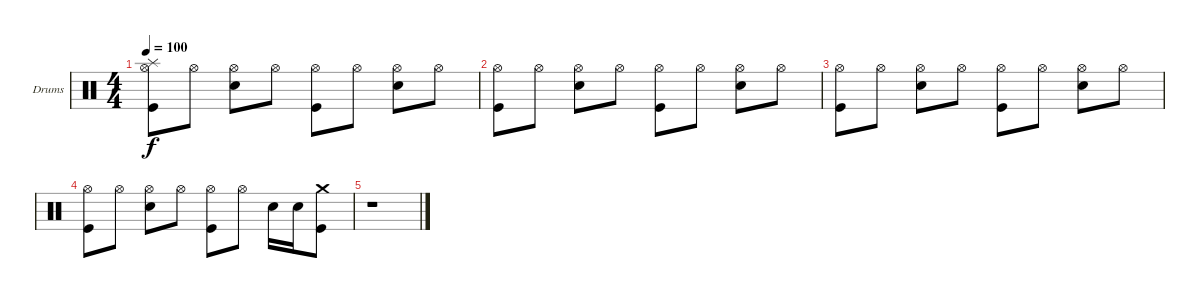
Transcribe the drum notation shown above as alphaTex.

\defaultSystemsLayout 4
\bracketExtendMode groupsimilarinstruments
\firstSystemTrackNameOrientation horizontal
\otherSystemsTrackNameOrientation horizontal
\track ("Nick Menza " "Drums") {instrument percussion}
\staff {score}
\articulation defaults
\ts (4 4)
\tempo 100
\clef neutral
\ks c
("Hi-Hat (open)" "Kick (hit)" "Splash (hit)").8{dy f} "Hi-Hat (open)".8 ("Hi-Hat (open)" "Snare (hit) 2").8 "Hi-Hat (open)".8 ("Hi-Hat (open)" "Kick (hit)").8 "Hi-Hat (open)".8 ("Hi-Hat (open)" "Snare (hit) 2").8 "Hi-Hat (open)".8 |
("Hi-Hat (open)" "Kick (hit)").8 "Hi-Hat (open)".8 ("Hi-Hat (open)" "Snare (hit) 2").8 "Hi-Hat (open)".8 ("Hi-Hat (open)" "Kick (hit)").8 "Hi-Hat (open)".8 ("Hi-Hat (open)" "Snare (hit) 2").8 "Hi-Hat (open)".8 |
("Hi-Hat (open)" "Kick (hit)").8 "Hi-Hat (open)".8 ("Hi-Hat (open)" "Snare (hit) 2").8 "Hi-Hat (open)".8 ("Hi-Hat (open)" "Kick (hit)").8 "Hi-Hat (open)".8 ("Hi-Hat (open)" "Snare (hit) 2").8 "Hi-Hat (open)".8 |
("Hi-Hat (open)" "Kick (hit)").8 "Hi-Hat (open)".8 ("Hi-Hat (open)" "Snare (hit) 2").8 "Hi-Hat (open)".8 ("Hi-Hat (open)" "Kick (hit)").8 "Hi-Hat (open)".8 "Snare (hit) 2".16 "Snare (hit) 2".16 ("Crash medium (hit)" "Kick (hit)").8 |
r.1
